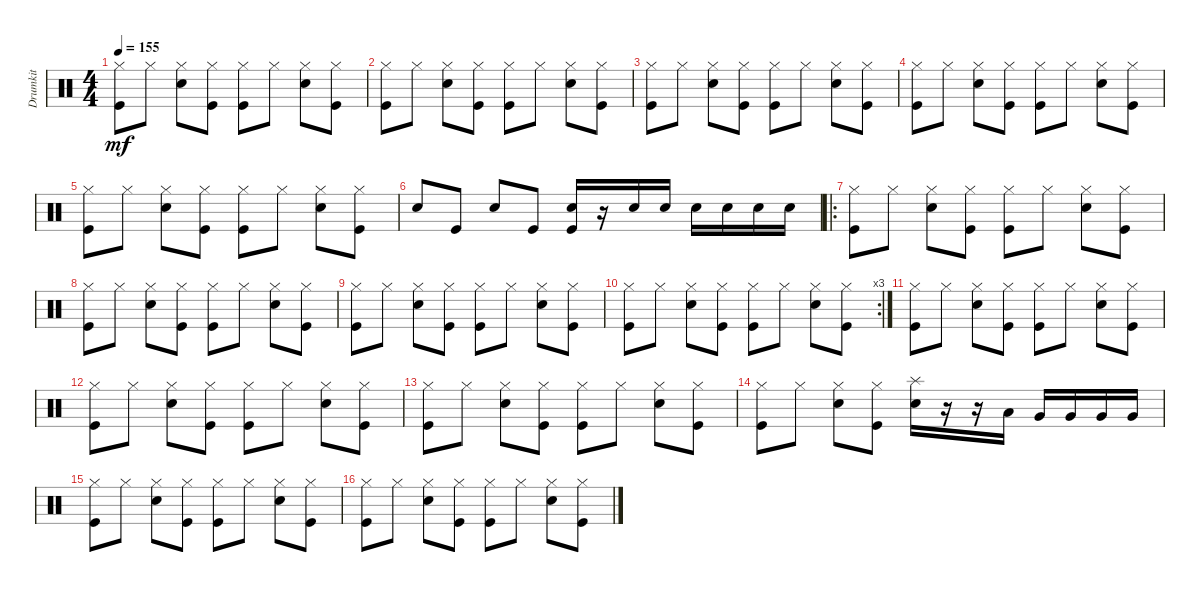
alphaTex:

\track ("Drumkit" "Drumkit") {instrument percussion}
\staff {score}
\articulation defaults
\ts (4 4)
\tempo 155
\clef neutral
\ks c
("Hi-Hat (closed)" "Kick (hit)").8{dy mf} "Hi-Hat (closed)".8 ("Hi-Hat (closed)" "Snare (hit) 2").8 ("Hi-Hat (closed)" "Kick (hit)").8 ("Hi-Hat (closed)" "Kick (hit)").8 "Hi-Hat (closed)".8 ("Hi-Hat (closed)" "Snare (hit) 2").8 ("Hi-Hat (closed)" "Kick (hit)").8 |
("Hi-Hat (closed)" "Kick (hit)").8 "Hi-Hat (closed)".8 ("Hi-Hat (closed)" "Snare (hit) 2").8 ("Hi-Hat (closed)" "Kick (hit)").8 ("Hi-Hat (closed)" "Kick (hit)").8 "Hi-Hat (closed)".8 ("Hi-Hat (closed)" "Snare (hit) 2").8 ("Hi-Hat (closed)" "Kick (hit)").8 |
("Hi-Hat (closed)" "Kick (hit)").8 "Hi-Hat (closed)".8 ("Hi-Hat (closed)" "Snare (hit) 2").8 ("Hi-Hat (closed)" "Kick (hit)").8 ("Hi-Hat (closed)" "Kick (hit)").8 "Hi-Hat (closed)".8 ("Hi-Hat (closed)" "Snare (hit) 2").8 ("Hi-Hat (closed)" "Kick (hit)").8 |
("Hi-Hat (closed)" "Kick (hit)").8 "Hi-Hat (closed)".8 ("Hi-Hat (closed)" "Snare (hit) 2").8 ("Hi-Hat (closed)" "Kick (hit)").8 ("Hi-Hat (closed)" "Kick (hit)").8 "Hi-Hat (closed)".8 ("Hi-Hat (closed)" "Snare (hit) 2").8 ("Hi-Hat (closed)" "Kick (hit)").8 |
("Hi-Hat (closed)" "Kick (hit)").8 "Hi-Hat (closed)".8 ("Hi-Hat (closed)" "Snare (hit) 2").8 ("Hi-Hat (closed)" "Kick (hit)").8 ("Hi-Hat (closed)" "Kick (hit)").8 "Hi-Hat (closed)".8 ("Hi-Hat (closed)" "Snare (hit) 2").8 ("Hi-Hat (closed)" "Kick (hit)").8 |
"Snare (hit) 2".8 "Kick (hit)".8 "Snare (hit) 2".8 "Kick (hit)".8 ("Snare (hit) 2" "Kick (hit)").16 r.16 "Snare (hit) 2".16 "Snare (hit) 2".16 "Snare (hit) 2".16 "Snare (hit) 2".16 "Snare (hit) 2".16 "Snare (hit) 2".16 |
\ro
("Hi-Hat (closed)" "Kick (hit)").8 "Hi-Hat (closed)".8 ("Hi-Hat (closed)" "Snare (hit) 2").8 ("Hi-Hat (closed)" "Kick (hit)").8 ("Hi-Hat (closed)" "Kick (hit)").8 "Hi-Hat (closed)".8 ("Hi-Hat (closed)" "Snare (hit) 2").8 ("Hi-Hat (closed)" "Kick (hit)").8 |
("Hi-Hat (closed)" "Kick (hit)").8 "Hi-Hat (closed)".8 ("Hi-Hat (closed)" "Snare (hit) 2").8 ("Hi-Hat (closed)" "Kick (hit)").8 ("Hi-Hat (closed)" "Kick (hit)").8 "Hi-Hat (closed)".8 ("Hi-Hat (closed)" "Snare (hit) 2").8 ("Hi-Hat (closed)" "Kick (hit)").8 |
("Hi-Hat (closed)" "Kick (hit)").8 "Hi-Hat (closed)".8 ("Hi-Hat (closed)" "Snare (hit) 2").8 ("Hi-Hat (closed)" "Kick (hit)").8 ("Hi-Hat (closed)" "Kick (hit)").8 "Hi-Hat (closed)".8 ("Hi-Hat (closed)" "Snare (hit) 2").8 ("Hi-Hat (closed)" "Kick (hit)").8 |
\rc 3
("Hi-Hat (closed)" "Kick (hit)").8 "Hi-Hat (closed)".8 ("Hi-Hat (closed)" "Snare (hit) 2").8 ("Hi-Hat (closed)" "Kick (hit)").8 ("Hi-Hat (closed)" "Kick (hit)").8 "Hi-Hat (closed)".8 ("Hi-Hat (closed)" "Snare (hit) 2").8 ("Hi-Hat (closed)" "Kick (hit)").8 |
("Hi-Hat (closed)" "Kick (hit)").8 "Hi-Hat (closed)".8 ("Hi-Hat (closed)" "Snare (hit) 2").8 ("Hi-Hat (closed)" "Kick (hit)").8 ("Hi-Hat (closed)" "Kick (hit)").8 "Hi-Hat (closed)".8 ("Hi-Hat (closed)" "Snare (hit) 2").8 ("Hi-Hat (closed)" "Kick (hit)").8 |
("Hi-Hat (closed)" "Kick (hit)").8 "Hi-Hat (closed)".8 ("Hi-Hat (closed)" "Snare (hit) 2").8 ("Hi-Hat (closed)" "Kick (hit)").8 ("Hi-Hat (closed)" "Kick (hit)").8 "Hi-Hat (closed)".8 ("Hi-Hat (closed)" "Snare (hit) 2").8 ("Hi-Hat (closed)" "Kick (hit)").8 |
("Hi-Hat (closed)" "Kick (hit)").8 "Hi-Hat (closed)".8 ("Hi-Hat (closed)" "Snare (hit) 2").8 ("Hi-Hat (closed)" "Kick (hit)").8 ("Hi-Hat (closed)" "Kick (hit)").8 "Hi-Hat (closed)".8 ("Hi-Hat (closed)" "Snare (hit) 2").8 ("Hi-Hat (closed)" "Kick (hit)").8 |
("Hi-Hat (closed)" "Kick (hit)").8 "Hi-Hat (closed)".8 ("Hi-Hat (closed)" "Snare (hit) 2").8 ("Hi-Hat (closed)" "Kick (hit)").8 ("Splash (hit)" "Snare (hit) 2").16 r.16 r.16 "Low Tom (hit)".16 "Very Low Tom (hit)".16 "Very Low Tom (hit)".16 "Very Low Tom (hit)".16 "Very Low Tom (hit)".16 |
("Hi-Hat (closed)" "Kick (hit)").8 "Hi-Hat (closed)".8 ("Hi-Hat (closed)" "Snare (hit) 2").8 ("Hi-Hat (closed)" "Kick (hit)").8 ("Hi-Hat (closed)" "Kick (hit)").8 "Hi-Hat (closed)".8 ("Hi-Hat (closed)" "Snare (hit) 2").8 ("Hi-Hat (closed)" "Kick (hit)").8 |
("Hi-Hat (closed)" "Kick (hit)").8 "Hi-Hat (closed)".8 ("Hi-Hat (closed)" "Snare (hit) 2").8 ("Hi-Hat (closed)" "Kick (hit)").8 ("Hi-Hat (closed)" "Kick (hit)").8 "Hi-Hat (closed)".8 ("Hi-Hat (closed)" "Snare (hit) 2").8 ("Hi-Hat (closed)" "Kick (hit)").8
